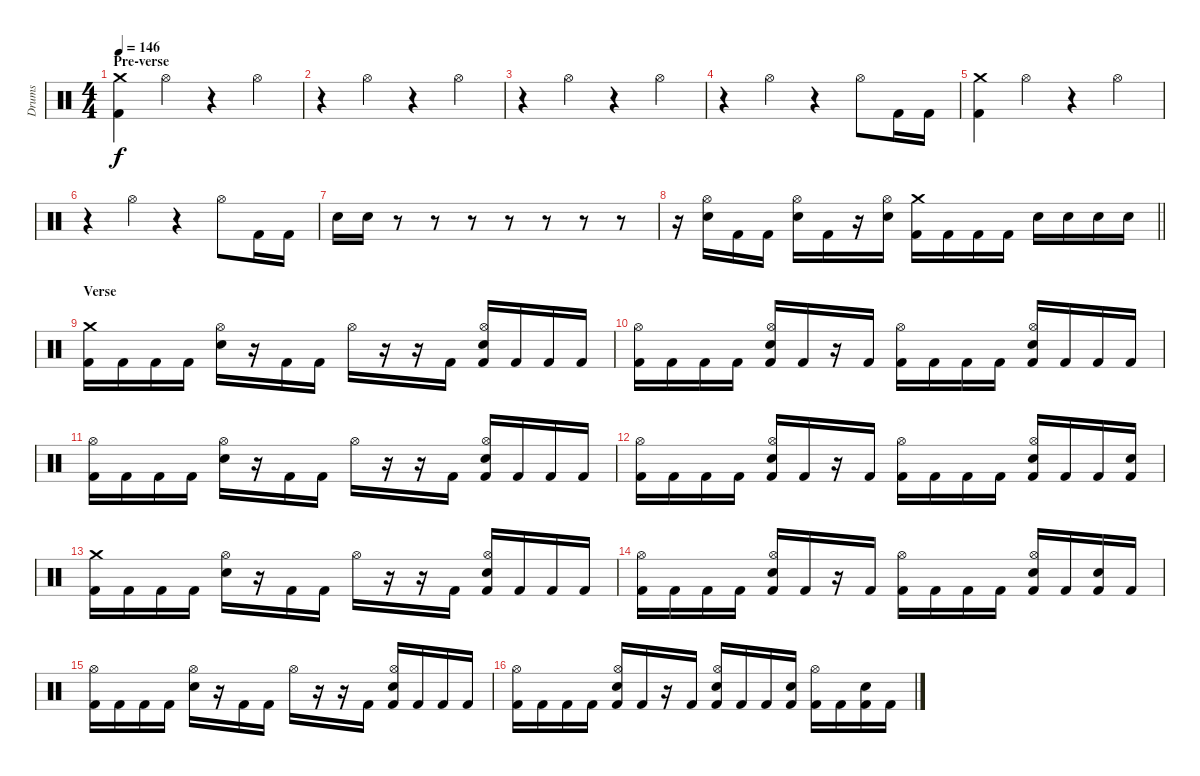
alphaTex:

\track ("Drums" "Drums") {instrument percussion}
\staff {score}
\articulation defaults
\ts (4 4)
\section ("" "Pre-verse")
\tempo 146
\clef neutral
\ks c
("Crash medium (hit)" "Kick (hit) 2").4{dy f} "Hi-Hat (open)".4 r.4 "Hi-Hat (open)".4 |
r.4 "Hi-Hat (open)".4 r.4 "Hi-Hat (open)".4 |
r.4 "Hi-Hat (open)".4 r.4 "Hi-Hat (open)".4 |
r.4 "Hi-Hat (open)".4 r.4 "Hi-Hat (open)".8 "Kick (hit) 2".16 "Kick (hit) 2".16 |
("Crash medium (hit)" "Kick (hit) 2").4 "Hi-Hat (open)".4 r.4 "Hi-Hat (open)".4 |
r.4 "Hi-Hat (open)".4 r.4 "Hi-Hat (open)".8 "Kick (hit) 2".16 "Kick (hit) 2".16 |
"Electric Snare (hit)".16 "Electric Snare (hit)".16 r.8 r.8 r.8 r.8 r.8 r.8 r.8 |
\barLineRight lightlight
r.16 ("Hi-Hat (open)" "Electric Snare (hit)").16 "Kick (hit) 2".16 "Kick (hit) 2".16 ("Hi-Hat (open)" "Electric Snare (hit)").16 "Kick (hit) 2".16 r.16 ("Hi-Hat (open)" "Electric Snare (hit)").16 ("Crash medium (hit)" "Kick (hit) 2").16 "Kick (hit) 2".16 "Kick (hit) 2".16 "Kick (hit) 2".16 "Electric Snare (hit)".16 "Electric Snare (hit)".16 "Electric Snare (hit)".16 "Electric Snare (hit)".16 |
\section ("" "Verse")
("Crash medium (hit)" "Kick (hit) 2").16 "Kick (hit) 2".16 "Kick (hit) 2".16 "Kick (hit) 2".16 ("Hi-Hat (open)" "Electric Snare (hit)").16 r.16 "Kick (hit) 2".16 "Kick (hit) 2".16 "Hi-Hat (open)".16 r.16 r.16 "Kick (hit) 2".16 ("Hi-Hat (open)" "Electric Snare (hit)" "Kick (hit) 2").16 "Kick (hit) 2".16 "Kick (hit) 2".16 "Kick (hit) 2".16 |
("Hi-Hat (open)" "Kick (hit) 2").16 "Kick (hit) 2".16 "Kick (hit) 2".16 "Kick (hit) 2".16 ("Hi-Hat (open)" "Electric Snare (hit)" "Kick (hit) 2").16 "Kick (hit) 2".16 r.16 "Kick (hit) 2".16 ("Hi-Hat (open)" "Kick (hit) 2").16 "Kick (hit) 2".16 "Kick (hit) 2".16 "Kick (hit) 2".16 ("Hi-Hat (open)" "Electric Snare (hit)" "Kick (hit) 2").16 "Kick (hit) 2".16 "Kick (hit) 2".16 "Kick (hit) 2".16 |
("Hi-Hat (open)" "Kick (hit) 2").16 "Kick (hit) 2".16 "Kick (hit) 2".16 "Kick (hit) 2".16 ("Hi-Hat (open)" "Electric Snare (hit)").16 r.16 "Kick (hit) 2".16 "Kick (hit) 2".16 "Hi-Hat (open)".16 r.16 r.16 "Kick (hit) 2".16 ("Hi-Hat (open)" "Electric Snare (hit)" "Kick (hit) 2").16 "Kick (hit) 2".16 "Kick (hit) 2".16 "Kick (hit) 2".16 |
("Hi-Hat (open)" "Kick (hit) 2").16 "Kick (hit) 2".16 "Kick (hit) 2".16 "Kick (hit) 2".16 ("Hi-Hat (open)" "Electric Snare (hit)" "Kick (hit) 2").16 "Kick (hit) 2".16 r.16 "Kick (hit) 2".16 ("Hi-Hat (open)" "Kick (hit) 2").16 "Kick (hit) 2".16 "Kick (hit) 2".16 "Kick (hit) 2".16 ("Hi-Hat (open)" "Electric Snare (hit)" "Kick (hit) 2").16 "Kick (hit) 2".16 "Kick (hit) 2".16 ("Electric Snare (hit)" "Kick (hit) 2").16 |
("Crash medium (hit)" "Kick (hit) 2").16 "Kick (hit) 2".16 "Kick (hit) 2".16 "Kick (hit) 2".16 ("Hi-Hat (open)" "Electric Snare (hit)").16 r.16 "Kick (hit) 2".16 "Kick (hit) 2".16 "Hi-Hat (open)".16 r.16 r.16 "Kick (hit) 2".16 ("Hi-Hat (open)" "Electric Snare (hit)" "Kick (hit) 2").16 "Kick (hit) 2".16 "Kick (hit) 2".16 "Kick (hit) 2".16 |
("Hi-Hat (open)" "Kick (hit) 2").16 "Kick (hit) 2".16 "Kick (hit) 2".16 "Kick (hit) 2".16 ("Hi-Hat (open)" "Electric Snare (hit)" "Kick (hit) 2").16 "Kick (hit) 2".16 r.16 "Kick (hit) 2".16 ("Hi-Hat (open)" "Kick (hit) 2").16 "Kick (hit) 2".16 "Kick (hit) 2".16 "Kick (hit) 2".16 ("Hi-Hat (open)" "Electric Snare (hit)" "Kick (hit) 2").16 "Kick (hit) 2".16 ("Electric Snare (hit)" "Kick (hit) 2").16 "Kick (hit) 2".16 |
("Hi-Hat (open)" "Kick (hit) 2").16 "Kick (hit) 2".16 "Kick (hit) 2".16 "Kick (hit) 2".16 ("Hi-Hat (open)" "Electric Snare (hit)").16 r.16 "Kick (hit) 2".16 "Kick (hit) 2".16 "Hi-Hat (open)".16 r.16 r.16 "Kick (hit) 2".16 ("Hi-Hat (open)" "Electric Snare (hit)" "Kick (hit) 2").16 "Kick (hit) 2".16 "Kick (hit) 2".16 "Kick (hit) 2".16 |
("Hi-Hat (open)" "Kick (hit) 2").16 "Kick (hit) 2".16 "Kick (hit) 2".16 "Kick (hit) 2".16 ("Hi-Hat (open)" "Electric Snare (hit)" "Kick (hit) 2").16 "Kick (hit) 2".16 r.16 "Kick (hit) 2".16 ("Hi-Hat (open)" "Electric Snare (hit)" "Kick (hit) 2").16 "Kick (hit) 2".16 "Kick (hit) 2".16 ("Electric Snare (hit)" "Kick (hit) 2").16 ("Hi-Hat (open)" "Kick (hit) 2").16 "Kick (hit) 2".16 ("Electric Snare (hit)" "Kick (hit) 2").16 "Kick (hit) 2".16
